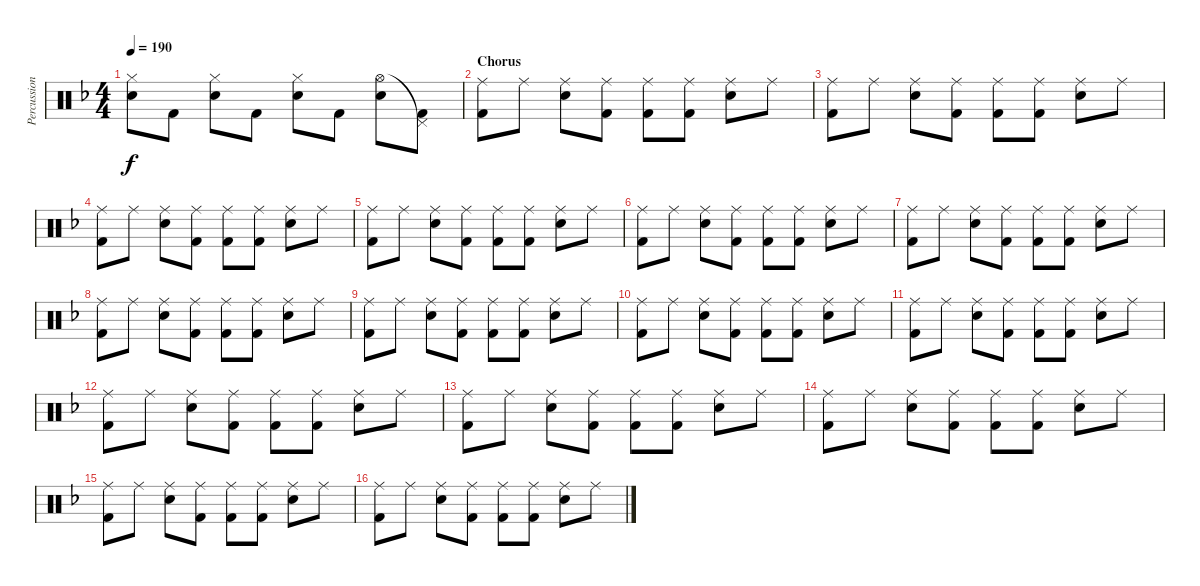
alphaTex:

\track ("Percussion" "Percussion") {instrument percussion}
\staff {score}
\articulation defaults
\ts (4 4)
\tempo 190
\clef neutral
\ks f
("Hi-Hat (closed)" "Snare (hit) 2").8{dy f} "Kick (hit) 2".8 ("Hi-Hat (closed)" "Snare (hit) 2").8 "Kick (hit) 2".8 ("Hi-Hat (closed)" "Snare (hit) 2").8 "Kick (hit) 2".8 ("Hi-Hat (open)" "Snare (hit) 2").8 ("Pedal Hi-Hat (hit)"{t} "Kick (hit) 2").8 |
\section ("" "Chorus")
("Ride (middle)" "Kick (hit) 2").8 "Ride (middle)".8 ("Ride (middle)" "Snare (hit) 2").8 ("Ride (middle)" "Kick (hit) 2").8 ("Ride (middle)" "Kick (hit) 2").8 ("Ride (middle)" "Kick (hit) 2").8 ("Ride (middle)" "Snare (hit) 2").8 "Ride (middle)".8 |
("Ride (middle)" "Kick (hit) 2").8 "Ride (middle)".8 ("Ride (middle)" "Snare (hit) 2").8 ("Ride (middle)" "Kick (hit) 2").8 ("Ride (middle)" "Kick (hit) 2").8 ("Ride (middle)" "Kick (hit) 2").8 ("Ride (middle)" "Snare (hit) 2").8 "Ride (middle)".8 |
("Ride (middle)" "Kick (hit) 2").8 "Ride (middle)".8 ("Ride (middle)" "Snare (hit) 2").8 ("Ride (middle)" "Kick (hit) 2").8 ("Ride (middle)" "Kick (hit) 2").8 ("Ride (middle)" "Kick (hit) 2").8 ("Ride (middle)" "Snare (hit) 2").8 "Ride (middle)".8 |
("Ride (middle)" "Kick (hit) 2").8 "Ride (middle)".8 ("Ride (middle)" "Snare (hit) 2").8 ("Ride (middle)" "Kick (hit) 2").8 ("Ride (middle)" "Kick (hit) 2").8 ("Ride (middle)" "Kick (hit) 2").8 ("Ride (middle)" "Snare (hit) 2").8 "Ride (middle)".8 |
("Ride (middle)" "Kick (hit) 2").8 "Ride (middle)".8 ("Ride (middle)" "Snare (hit) 2").8 ("Ride (middle)" "Kick (hit) 2").8 ("Ride (middle)" "Kick (hit) 2").8 ("Ride (middle)" "Kick (hit) 2").8 ("Ride (middle)" "Snare (hit) 2").8 "Ride (middle)".8 |
("Ride (middle)" "Kick (hit) 2").8 "Ride (middle)".8 ("Ride (middle)" "Snare (hit) 2").8 ("Ride (middle)" "Kick (hit) 2").8 ("Ride (middle)" "Kick (hit) 2").8 ("Ride (middle)" "Kick (hit) 2").8 ("Ride (middle)" "Snare (hit) 2").8 "Ride (middle)".8 |
("Ride (middle)" "Kick (hit) 2").8 "Ride (middle)".8 ("Ride (middle)" "Snare (hit) 2").8 ("Ride (middle)" "Kick (hit) 2").8 ("Ride (middle)" "Kick (hit) 2").8 ("Ride (middle)" "Kick (hit) 2").8 ("Ride (middle)" "Snare (hit) 2").8 "Ride (middle)".8 |
("Ride (middle)" "Kick (hit) 2").8 "Ride (middle)".8 ("Ride (middle)" "Snare (hit) 2").8 ("Ride (middle)" "Kick (hit) 2").8 ("Ride (middle)" "Kick (hit) 2").8 ("Ride (middle)" "Kick (hit) 2").8 ("Ride (middle)" "Snare (hit) 2").8 "Ride (middle)".8 |
("Ride (middle)" "Kick (hit) 2").8 "Ride (middle)".8 ("Ride (middle)" "Snare (hit) 2").8 ("Ride (middle)" "Kick (hit) 2").8 ("Ride (middle)" "Kick (hit) 2").8 ("Ride (middle)" "Kick (hit) 2").8 ("Ride (middle)" "Snare (hit) 2").8 "Ride (middle)".8 |
("Ride (middle)" "Kick (hit) 2").8 "Ride (middle)".8 ("Ride (middle)" "Snare (hit) 2").8 ("Ride (middle)" "Kick (hit) 2").8 ("Ride (middle)" "Kick (hit) 2").8 ("Ride (middle)" "Kick (hit) 2").8 ("Ride (middle)" "Snare (hit) 2").8 "Ride (middle)".8 |
("Ride (middle)" "Kick (hit) 2").8 "Ride (middle)".8 ("Ride (middle)" "Snare (hit) 2").8 ("Ride (middle)" "Kick (hit) 2").8 ("Ride (middle)" "Kick (hit) 2").8 ("Ride (middle)" "Kick (hit) 2").8 ("Ride (middle)" "Snare (hit) 2").8 "Ride (middle)".8 |
("Ride (middle)" "Kick (hit) 2").8 "Ride (middle)".8 ("Ride (middle)" "Snare (hit) 2").8 ("Ride (middle)" "Kick (hit) 2").8 ("Ride (middle)" "Kick (hit) 2").8 ("Ride (middle)" "Kick (hit) 2").8 ("Ride (middle)" "Snare (hit) 2").8 "Ride (middle)".8 |
("Ride (middle)" "Kick (hit) 2").8 "Ride (middle)".8 ("Ride (middle)" "Snare (hit) 2").8 ("Ride (middle)" "Kick (hit) 2").8 ("Ride (middle)" "Kick (hit) 2").8 ("Ride (middle)" "Kick (hit) 2").8 ("Ride (middle)" "Snare (hit) 2").8 "Ride (middle)".8 |
("Ride (middle)" "Kick (hit) 2").8 "Ride (middle)".8 ("Ride (middle)" "Snare (hit) 2").8 ("Ride (middle)" "Kick (hit) 2").8 ("Ride (middle)" "Kick (hit) 2").8 ("Ride (middle)" "Kick (hit) 2").8 ("Ride (middle)" "Snare (hit) 2").8 "Ride (middle)".8 |
("Ride (middle)" "Kick (hit) 2").8 "Ride (middle)".8 ("Ride (middle)" "Snare (hit) 2").8 ("Ride (middle)" "Kick (hit) 2").8 ("Ride (middle)" "Kick (hit) 2").8 ("Ride (middle)" "Kick (hit) 2").8 ("Ride (middle)" "Snare (hit) 2").8 "Ride (middle)".8
